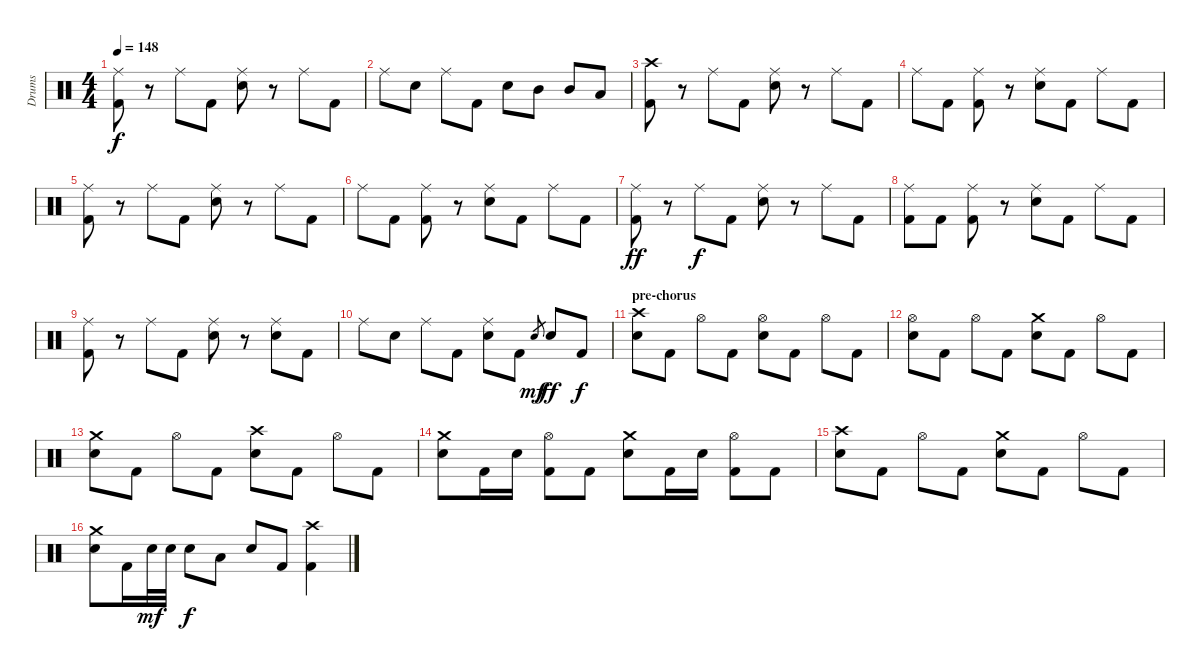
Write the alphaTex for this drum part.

\track ("Drums" "Drums") {instrument percussion}
\staff {score}
\articulation defaults
\ts (4 4)
\tempo 148
\clef neutral
\ks c
("Ride (middle)" "Kick (hit) 2").8{dy f} r.8 "Ride (middle)".8 "Kick (hit) 2".8 ("Ride (middle)" "Electric Snare (hit)").8 r.8 "Ride (middle)".8 "Kick (hit) 2".8 |
"Ride (middle)".8 "Electric Snare (hit)".8 "Ride (middle)".8 "Kick (hit) 2".8 "Electric Snare (hit)".8 "Mid Tom (hit)".8 "Mid Tom (hit)".8 "Low Tom (hit)".8 |
("Crash high (hit)" "Kick (hit) 2").8 r.8 "Ride (middle)".8 "Kick (hit) 2".8 ("Ride (middle)" "Electric Snare (hit)").8 r.8 "Ride (middle)".8 "Kick (hit) 2".8 |
"Ride (middle)".8 "Kick (hit) 2".8 ("Ride (middle)" "Kick (hit) 2").8 r.8 ("Ride (middle)" "Electric Snare (hit)").8 "Kick (hit) 2".8 "Ride (middle)".8 "Kick (hit) 2".8 |
("Ride (middle)" "Kick (hit) 2").8 r.8 "Ride (middle)".8 "Kick (hit) 2".8 ("Ride (middle)" "Electric Snare (hit)").8 r.8 "Ride (middle)".8 "Kick (hit) 2".8 |
"Ride (middle)".8 "Kick (hit) 2".8 ("Ride (middle)" "Kick (hit) 2").8 r.8 ("Ride (middle)" "Electric Snare (hit)").8 "Kick (hit) 2".8 "Ride (middle)".8 "Kick (hit) 2".8 |
("Ride (middle)" "Kick (hit) 2").8{dy ff} r.8 "Ride (middle)".8{dy f} "Kick (hit) 2".8 ("Ride (middle)" "Electric Snare (hit)").8 r.8 "Ride (middle)".8 "Kick (hit) 2".8 |
("Ride (middle)" "Kick (hit) 2").8 "Kick (hit) 2".8 ("Ride (middle)" "Kick (hit) 2").8 r.8 ("Ride (middle)" "Electric Snare (hit)").8 "Kick (hit) 2".8 "Ride (middle)".8 "Kick (hit) 2".8 |
("Ride (middle)" "Kick (hit) 2").8 r.8 "Ride (middle)".8 "Kick (hit) 2".8 ("Ride (middle)" "Electric Snare (hit)").8 r.8 ("Ride (middle)" "Electric Snare (hit)").8 "Kick (hit) 2".8 |
"Ride (middle)".8 "Electric Snare (hit)".8 "Ride (middle)".8 "Kick (hit) 2".8 ("Ride (middle)" "Electric Snare (hit)").8 "Kick (hit) 2".8 "Electric Snare (hit)".8{gr dy mf} "Electric Snare (hit)".8{dy ff} "Kick (hit) 2".8{dy f} |
\section ("" "pre-chorus")
("Crash high (hit)" "Electric Snare (hit)").8 "Kick (hit) 2".8 "Hi-Hat (open)".8 "Kick (hit) 2".8 ("Hi-Hat (open)" "Electric Snare (hit)").8 "Kick (hit) 2".8 "Hi-Hat (open)".8 "Kick (hit) 2".8 |
("Hi-Hat (open)" "Electric Snare (hit)").8 "Kick (hit) 2".8 "Hi-Hat (open)".8 "Kick (hit) 2".8 ("Crash medium (hit)" "Electric Snare (hit)").8 "Kick (hit) 2".8 "Hi-Hat (open)".8 "Kick (hit) 2".8 |
("Crash medium (hit)" "Electric Snare (hit)").8 "Kick (hit) 2".8 "Hi-Hat (open)".8 "Kick (hit) 2".8 ("Crash high (hit)" "Electric Snare (hit)").8 "Kick (hit) 2".8 "Hi-Hat (open)".8 "Kick (hit) 2".8 |
("Crash medium (hit)" "Electric Snare (hit)").8 "Kick (hit) 2".16 "Electric Snare (hit)".16 ("Hi-Hat (open)" "Kick (hit) 2").8 "Kick (hit) 2".8 ("Crash medium (hit)" "Electric Snare (hit)").8 "Kick (hit) 2".16 "Electric Snare (hit)".16 ("Hi-Hat (open)" "Kick (hit) 2").8 "Kick (hit) 2".8 |
("Crash high (hit)" "Electric Snare (hit)").8 "Kick (hit) 2".8 "Hi-Hat (open)".8 "Kick (hit) 2".8 ("Crash medium (hit)" "Electric Snare (hit)").8 "Kick (hit) 2".8 "Hi-Hat (open)".8 "Kick (hit) 2".8 |
("Crash medium (hit)" "Electric Snare (hit)").8 "Kick (hit) 2".16 "Electric Snare (hit)".32{dy mf} "Electric Snare (hit)".32 "Electric Snare (hit)".8{dy f} "Low Tom (hit)".8 "Electric Snare (hit)".8 "Kick (hit) 2".8 ("Crash high (hit)" "Kick (hit) 2").4
